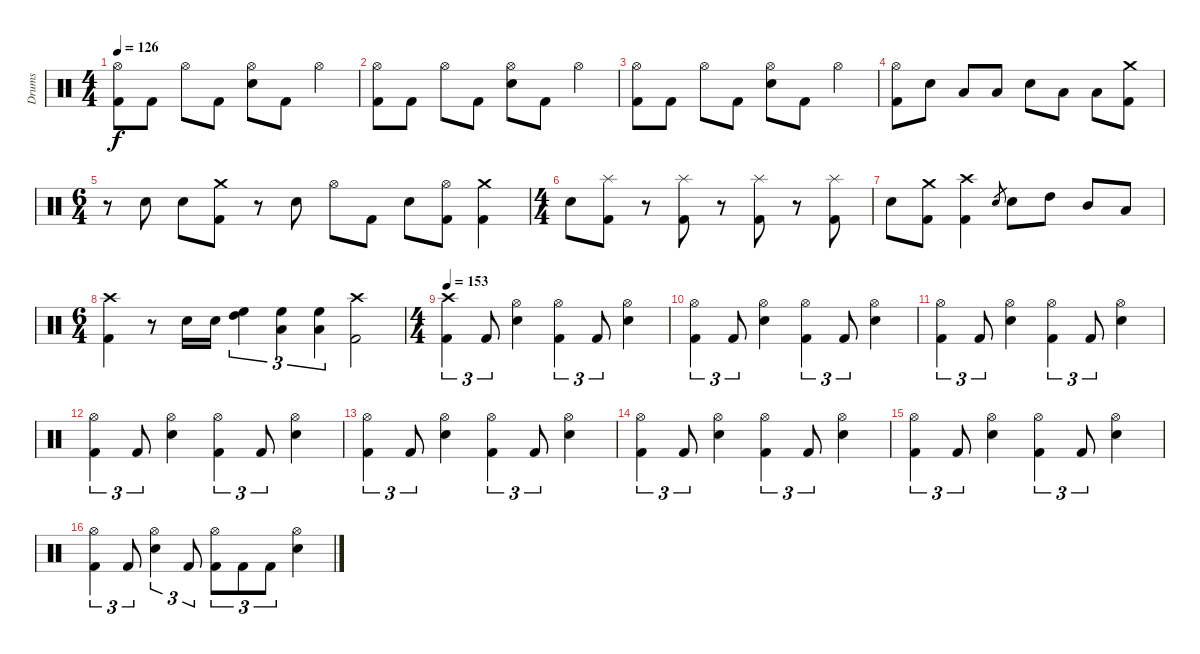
\track ("Drums" "Drums") {instrument percussion}
\staff {score}
\articulation defaults
\ts (4 4)
\tempo 126
\clef neutral
\ks c
("Hi-Hat (open)" "Kick (hit) 2").8{dy f} "Kick (hit) 2".8 "Hi-Hat (open)".8 "Kick (hit) 2".8 ("Hi-Hat (open)" "Electric Snare (hit)").8 "Kick (hit) 2".8 "Hi-Hat (open)".4 |
("Hi-Hat (open)" "Kick (hit) 2").8 "Kick (hit) 2".8 "Hi-Hat (open)".8 "Kick (hit) 2".8 ("Hi-Hat (open)" "Electric Snare (hit)").8 "Kick (hit) 2".8 "Hi-Hat (open)".4 |
("Hi-Hat (open)" "Kick (hit) 2").8 "Kick (hit) 2".8 "Hi-Hat (open)".8 "Kick (hit) 2".8 ("Hi-Hat (open)" "Electric Snare (hit)").8 "Kick (hit) 2".8 "Hi-Hat (open)".4 |
("Hi-Hat (open)" "Kick (hit) 2").8 "Electric Snare (hit)".8 "Low Tom (hit)".8 "Low Tom (hit)".8 "Electric Snare (hit)".8 "Low Floor Tom (hit)".8 "Low Floor Tom (hit)".8 ("Crash medium (hit)" "Kick (hit) 2").8 |
\ts (6 4)
r.8 "Electric Snare (hit)".8 "Electric Snare (hit)".8 ("Crash medium (hit)" "Kick (hit) 2").8 r.8 "Electric Snare (hit)".8 "Hi-Hat (open)".8 "Kick (hit) 2".8 "Electric Snare (hit)".8 ("Hi-Hat (open)" "Kick (hit) 2").8 ("Crash medium (hit)" "Kick (hit) 2").4 |
\ts (4 4)
"Electric Snare (hit)".8 ("Splash (hit)" "Kick (hit) 2").8 r.8 ("Splash (hit)" "Kick (hit) 2").8 r.8 ("Splash (hit)" "Kick (hit) 2").8 r.8 ("Splash (hit)" "Kick (hit) 2").8 |
"Electric Snare (hit)".8 ("Crash medium (hit)" "Kick (hit) 2").8 ("Crash high (hit)" "Kick (hit) 2").4 "Electric Snare (hit)".8{gr} "Electric Snare (hit)".8 "High Tom (hit)".8 "Mid Tom (hit)".8 "Low Tom (hit)".8 |
\ts (6 4)
("Crash high (hit)" "Kick (hit) 2").4 r.8 "Electric Snare (hit)".16 "Electric Snare (hit)".16 ("High Floor Tom (hit)" "High Tom (hit)").4{tu (3 2)} ("High Floor Tom (hit)" "Low Tom (hit)").4{tu (3 2)} ("High Floor Tom (hit)" "Low Floor Tom (hit)").4{tu (3 2)} ("Crash high (hit)" "Kick (hit) 2").2 |
\ts (4 4)
\tempo 153
("Crash high (hit)" "Kick (hit) 2").4{tu (3 2)} "Kick (hit) 2".8{tu (3 2)} ("Hi-Hat (open)" "Electric Snare (hit)").4 ("Hi-Hat (open)" "Kick (hit) 2").4{tu (3 2)} "Kick (hit) 2".8{tu (3 2)} ("Hi-Hat (open)" "Electric Snare (hit)").4 |
("Hi-Hat (open)" "Kick (hit) 2").4{tu (3 2)} "Kick (hit) 2".8{tu (3 2)} ("Hi-Hat (open)" "Electric Snare (hit)").4 ("Hi-Hat (open)" "Kick (hit) 2").4{tu (3 2)} "Kick (hit) 2".8{tu (3 2)} ("Hi-Hat (open)" "Electric Snare (hit)").4 |
("Hi-Hat (open)" "Kick (hit) 2").4{tu (3 2)} "Kick (hit) 2".8{tu (3 2)} ("Hi-Hat (open)" "Electric Snare (hit)").4 ("Hi-Hat (open)" "Kick (hit) 2").4{tu (3 2)} "Kick (hit) 2".8{tu (3 2)} ("Hi-Hat (open)" "Electric Snare (hit)").4 |
("Hi-Hat (open)" "Kick (hit) 2").4{tu (3 2)} "Kick (hit) 2".8{tu (3 2)} ("Hi-Hat (open)" "Electric Snare (hit)").4 ("Hi-Hat (open)" "Kick (hit) 2").4{tu (3 2)} "Kick (hit) 2".8{tu (3 2)} ("Hi-Hat (open)" "Electric Snare (hit)").4 |
("Hi-Hat (open)" "Kick (hit) 2").4{tu (3 2)} "Kick (hit) 2".8{tu (3 2)} ("Hi-Hat (open)" "Electric Snare (hit)").4 ("Hi-Hat (open)" "Kick (hit) 2").4{tu (3 2)} "Kick (hit) 2".8{tu (3 2)} ("Hi-Hat (open)" "Electric Snare (hit)").4 |
("Hi-Hat (open)" "Kick (hit) 2").4{tu (3 2)} "Kick (hit) 2".8{tu (3 2)} ("Hi-Hat (open)" "Electric Snare (hit)").4 ("Hi-Hat (open)" "Kick (hit) 2").4{tu (3 2)} "Kick (hit) 2".8{tu (3 2)} ("Hi-Hat (open)" "Electric Snare (hit)").4 |
("Hi-Hat (open)" "Kick (hit) 2").4{tu (3 2)} "Kick (hit) 2".8{tu (3 2)} ("Hi-Hat (open)" "Electric Snare (hit)").4 ("Hi-Hat (open)" "Kick (hit) 2").4{tu (3 2)} "Kick (hit) 2".8{tu (3 2)} ("Hi-Hat (open)" "Electric Snare (hit)").4 |
("Hi-Hat (open)" "Kick (hit) 2").4{tu (3 2)} "Kick (hit) 2".8{tu (3 2)} ("Hi-Hat (open)" "Electric Snare (hit)").4{tu (3 2)} "Kick (hit) 2".8{tu (3 2)} ("Hi-Hat (open)" "Kick (hit) 2").8{tu (3 2)} "Kick (hit) 2".8{tu (3 2)} "Kick (hit) 2".8{tu (3 2)} ("Hi-Hat (open)" "Electric Snare (hit)").4
